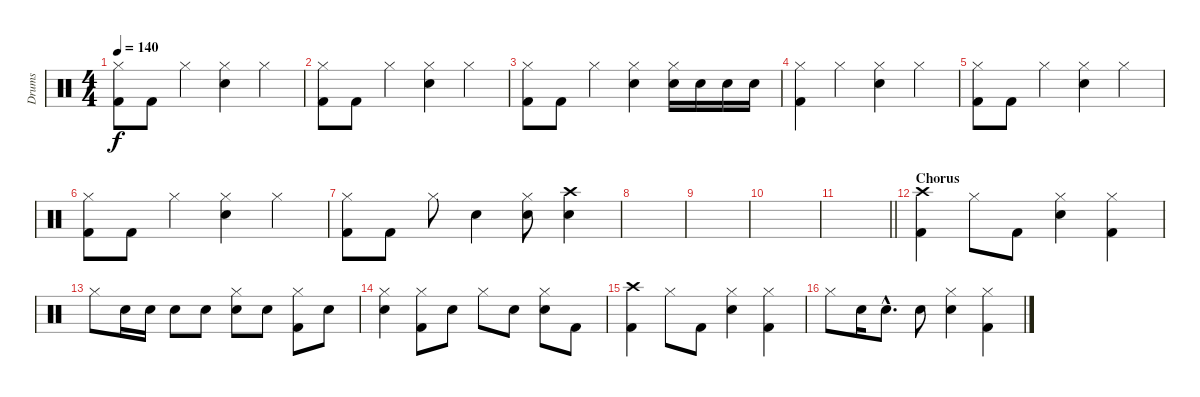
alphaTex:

\track ("Drums" "Drums") {instrument percussion}
\staff {score}
\articulation defaults
\ts (4 4)
\tempo 140
\clef neutral
\ks c
("Hi-Hat (closed)" "Kick (hit) 2").8{dy f} "Kick (hit) 2".8 "Hi-Hat (closed)".4 ("Hi-Hat (closed)" "Snare (hit) 2").4 "Hi-Hat (closed)".4 |
("Hi-Hat (closed)" "Kick (hit) 2").8 "Kick (hit) 2".8 "Hi-Hat (closed)".4 ("Hi-Hat (closed)" "Snare (hit) 2").4 "Hi-Hat (closed)".4 |
("Hi-Hat (closed)" "Kick (hit) 2").8 "Kick (hit) 2".8 "Hi-Hat (closed)".4 ("Hi-Hat (closed)" "Snare (hit) 2").4 ("Hi-Hat (closed)" "Electric Snare (hit)").16 "Electric Snare (hit)".16 "Electric Snare (hit)".16 "Electric Snare (hit)".16 |
("Hi-Hat (closed)" "Kick (hit) 2").4 "Hi-Hat (closed)".4 ("Hi-Hat (closed)" "Snare (hit) 2").4 "Hi-Hat (closed)".4 |
("Hi-Hat (closed)" "Kick (hit) 2").8 "Kick (hit) 2".8 "Hi-Hat (closed)".4 ("Hi-Hat (closed)" "Snare (hit) 2").4 "Hi-Hat (closed)".4 |
("Hi-Hat (closed)" "Kick (hit) 2").8 "Kick (hit) 2".8 "Hi-Hat (closed)".4 ("Hi-Hat (closed)" "Snare (hit) 2").4 "Hi-Hat (closed)".4 |
("Hi-Hat (closed)" "Kick (hit) 2").8 "Kick (hit) 2".8 "Hi-Hat (closed)".8 "Snare (hit) 2".4 ("Hi-Hat (closed)" "Electric Snare (hit)").8 ("Crash high (hit)" "Electric Snare (hit)").4 |
|
|
|
\barLineRight lightlight
|
\section ("" "Chorus")
("Crash high (hit)" "Kick (hit) 2").4 "Hi-Hat (closed)".8 "Kick (hit) 2".8 ("Hi-Hat (closed)" "Snare (hit) 2").4 ("Hi-Hat (closed)" "Kick (hit) 2").4 |
"Hi-Hat (closed)".8 "Snare (hit) 2".16 "Electric Snare (hit)".16 "Snare (hit) 2".8 "Electric Snare (hit)".8 ("Hi-Hat (closed)" "Snare (hit) 2").8 "Electric Snare (hit)".8 ("Hi-Hat (closed)" "Kick (hit) 2").8 "Electric Snare (hit)".8 |
("Hi-Hat (closed)" "Snare (hit) 2").4 ("Hi-Hat (closed)" "Kick (hit) 2").8 "Snare (hit) 2".8 "Hi-Hat (closed)".8 "Electric Snare (hit)".8 ("Hi-Hat (closed)" "Snare (hit) 2").8 "Kick (hit) 2".8 |
("Crash high (hit)" "Kick (hit) 2").4 "Hi-Hat (closed)".8 "Kick (hit) 2".8 ("Hi-Hat (closed)" "Snare (hit) 2").4 ("Hi-Hat (closed)" "Kick (hit) 2").4 |
"Hi-Hat (closed)".8 "Snare (hit) 2".16 "Snare (hit) 2"{hac}.8{d} "Snare (hit) 2".8 ("Hi-Hat (closed)" "Snare (hit) 2").4 ("Hi-Hat (closed)" "Kick (hit) 2").4
